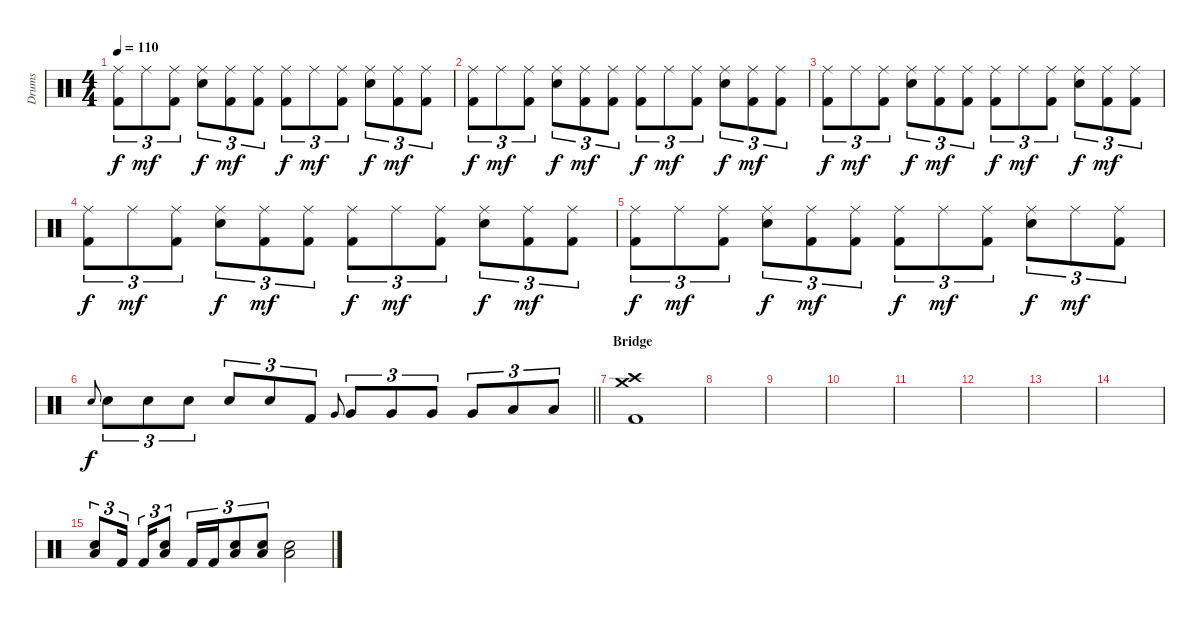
\track ("Drums" "Drums") {instrument percussion}
\staff {score}
\articulation defaults
\ts (4 4)
\tempo 110
\clef neutral
\ks c
("Ride (middle)" "Kick (hit) 2").8{tu (3 2) dy f} "Ride (middle)".8{tu (3 2) dy mf} ("Ride (middle)" "Kick (hit) 2").8{tu (3 2)} ("Ride (middle)" "Electric Snare (hit)").8{tu (3 2) dy f} ("Ride (middle)" "Kick (hit) 2").8{tu (3 2) dy mf} ("Ride (middle)" "Kick (hit) 2").8{tu (3 2)} ("Ride (middle)" "Kick (hit) 2").8{tu (3 2) dy f} "Ride (middle)".8{tu (3 2) dy mf} ("Ride (middle)" "Kick (hit) 2").8{tu (3 2)} ("Ride (middle)" "Electric Snare (hit)").8{tu (3 2) dy f} ("Ride (middle)" "Kick (hit) 2").8{tu (3 2) dy mf} ("Ride (middle)" "Kick (hit) 2").8{tu (3 2)} |
("Ride (middle)" "Kick (hit) 2").8{tu (3 2) dy f} "Ride (middle)".8{tu (3 2) dy mf} ("Ride (middle)" "Kick (hit) 2").8{tu (3 2)} ("Ride (middle)" "Electric Snare (hit)").8{tu (3 2) dy f} ("Ride (middle)" "Kick (hit) 2").8{tu (3 2) dy mf} ("Ride (middle)" "Kick (hit) 2").8{tu (3 2)} ("Ride (middle)" "Kick (hit) 2").8{tu (3 2) dy f} "Ride (middle)".8{tu (3 2) dy mf} ("Ride (middle)" "Kick (hit) 2").8{tu (3 2)} ("Ride (middle)" "Electric Snare (hit)").8{tu (3 2) dy f} ("Ride (middle)" "Kick (hit) 2").8{tu (3 2) dy mf} ("Ride (middle)" "Kick (hit) 2").8{tu (3 2)} |
("Ride (middle)" "Kick (hit) 2").8{tu (3 2) dy f} "Ride (middle)".8{tu (3 2) dy mf} ("Ride (middle)" "Kick (hit) 2").8{tu (3 2)} ("Ride (middle)" "Electric Snare (hit)").8{tu (3 2) dy f} ("Ride (middle)" "Kick (hit) 2").8{tu (3 2) dy mf} ("Ride (middle)" "Kick (hit) 2").8{tu (3 2)} ("Ride (middle)" "Kick (hit) 2").8{tu (3 2) dy f} "Ride (middle)".8{tu (3 2) dy mf} ("Ride (middle)" "Kick (hit) 2").8{tu (3 2)} ("Ride (middle)" "Electric Snare (hit)").8{tu (3 2) dy f} ("Ride (middle)" "Kick (hit) 2").8{tu (3 2) dy mf} ("Ride (middle)" "Kick (hit) 2").8{tu (3 2)} |
("Ride (middle)" "Kick (hit) 2").8{tu (3 2) dy f} "Ride (middle)".8{tu (3 2) dy mf} ("Ride (middle)" "Kick (hit) 2").8{tu (3 2)} ("Ride (middle)" "Electric Snare (hit)").8{tu (3 2) dy f} ("Ride (middle)" "Kick (hit) 2").8{tu (3 2) dy mf} ("Ride (middle)" "Kick (hit) 2").8{tu (3 2)} ("Ride (middle)" "Kick (hit) 2").8{tu (3 2) dy f} "Ride (middle)".8{tu (3 2) dy mf} ("Ride (middle)" "Kick (hit) 2").8{tu (3 2)} ("Ride (middle)" "Electric Snare (hit)").8{tu (3 2) dy f} ("Ride (middle)" "Kick (hit) 2").8{tu (3 2) dy mf} ("Ride (middle)" "Kick (hit) 2").8{tu (3 2)} |
("Ride (middle)" "Kick (hit) 2").8{tu (3 2) dy f} "Ride (middle)".8{tu (3 2) dy mf} ("Ride (middle)" "Kick (hit) 2").8{tu (3 2)} ("Ride (middle)" "Electric Snare (hit)").8{tu (3 2) dy f} ("Ride (middle)" "Kick (hit) 2").8{tu (3 2) dy mf} ("Ride (middle)" "Kick (hit) 2").8{tu (3 2)} ("Ride (middle)" "Kick (hit) 2").8{tu (3 2) dy f} "Ride (middle)".8{tu (3 2) dy mf} ("Ride (middle)" "Kick (hit) 2").8{tu (3 2)} ("Ride (middle)" "Electric Snare (hit)").8{tu (3 2) dy f} "Ride (middle)".8{tu (3 2) dy mf} ("Ride (middle)" "Kick (hit) 2").8{tu (3 2)} |
\barLineRight lightlight "Electric Snare (hit)".8{gr onbeat dy f} "Electric Snare (hit)".8{tu (3 2)} "Electric Snare (hit)".8{tu (3 2)} "Electric Snare (hit)".8{tu (3 2)} "Electric Snare (hit)".8{tu (3 2)} "Electric Snare (hit)".8{tu (3 2)} "Kick (hit) 2".8{tu (3 2)} "Very Low Tom (hit)".8{gr onbeat} "Very Low Tom (hit)".8{tu (3 2)} "Very Low Tom (hit)".8{tu (3 2)} "Very Low Tom (hit)".8{tu (3 2)} "Very Low Tom (hit)".8{tu (3 2)} "Low Floor Tom (hit)".8{tu (3 2)} "Low Floor Tom (hit)".8{tu (3 2)}
|
\section ("" "Bridge")
("Crash high (hit)" "Crash medium (hit)" "Kick (hit) 2").1 |
|
|
|
|
|
|
|
("Low Floor Tom (hit)" "Electric Snare (hit)").8{tu (3 2)} "Kick (hit) 2".16{tu (3 2) beam splitsecondary} "Kick (hit) 2".16{tu (3 2)} ("Low Floor Tom (hit)" "Electric Snare (hit)").8{tu (3 2)} "Kick (hit) 2".16{tu (3 2)} "Kick (hit) 2".16{tu (3 2)} ("Low Floor Tom (hit)" "Electric Snare (hit)").8{tu (3 2)} ("Low Floor Tom (hit)" "Electric Snare (hit)").8{tu (3 2)} ("Low Floor Tom (hit)" "Electric Snare (hit)").2
